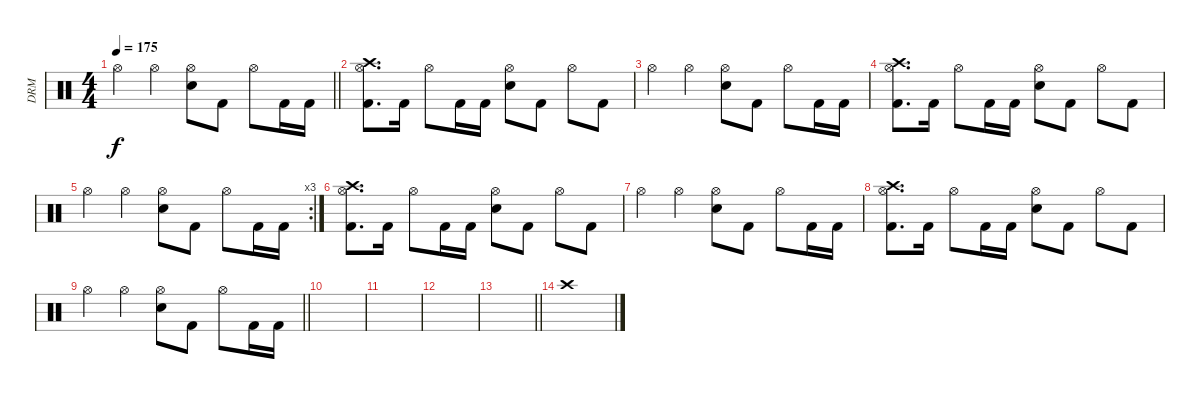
\track ("DRM " "DRM ") {instrument percussion}
\staff {score}
\articulation defaults
\ts (4 4)
\tempo 175
\clef neutral
\barLineRight lightlight
\ks c "Hi-Hat (open)".4{dy f} "Hi-Hat (open)".4
("Hi-Hat (open)" "Electric Snare (hit)").8 "Kick (hit) 2".8 "Hi-Hat (open)".8 "Kick (hit) 2".16 "Kick (hit) 2".16 |
("Hi-Hat (open)" "Crash high (hit)" "Kick (hit) 2").8{d volume 15} "Kick (hit) 2".16 "Hi-Hat (open)".8 "Kick (hit) 2".16 "Kick (hit) 2".16 ("Hi-Hat (open)" "Electric Snare (hit)").8 "Kick (hit) 2".8 "Hi-Hat (open)".8 "Kick (hit) 2".8 |
"Hi-Hat (open)".4 "Hi-Hat (open)".4 ("Hi-Hat (open)" "Electric Snare (hit)").8 "Kick (hit) 2".8 "Hi-Hat (open)".8 "Kick (hit) 2".16 "Kick (hit) 2".16 |
("Hi-Hat (open)" "Crash high (hit)" "Kick (hit) 2").8{d volume 15} "Kick (hit) 2".16 "Hi-Hat (open)".8 "Kick (hit) 2".16 "Kick (hit) 2".16 ("Hi-Hat (open)" "Electric Snare (hit)").8 "Kick (hit) 2".8 "Hi-Hat (open)".8 "Kick (hit) 2".8 |
\rc 3 "Hi-Hat (open)".4 "Hi-Hat (open)".4
("Hi-Hat (open)" "Electric Snare (hit)").8 "Kick (hit) 2".8 "Hi-Hat (open)".8 "Kick (hit) 2".16 "Kick (hit) 2".16 |
("Hi-Hat (open)" "Crash high (hit)" "Kick (hit) 2").8{d volume 15} "Kick (hit) 2".16 "Hi-Hat (open)".8 "Kick (hit) 2".16 "Kick (hit) 2".16 ("Hi-Hat (open)" "Electric Snare (hit)").8 "Kick (hit) 2".8 "Hi-Hat (open)".8 "Kick (hit) 2".8 |
"Hi-Hat (open)".4 "Hi-Hat (open)".4 ("Hi-Hat (open)" "Electric Snare (hit)").8 "Kick (hit) 2".8 "Hi-Hat (open)".8 "Kick (hit) 2".16 "Kick (hit) 2".16 |
("Hi-Hat (open)" "Crash high (hit)" "Kick (hit) 2").8{d volume 15} "Kick (hit) 2".16 "Hi-Hat (open)".8 "Kick (hit) 2".16 "Kick (hit) 2".16 ("Hi-Hat (open)" "Electric Snare (hit)").8 "Kick (hit) 2".8 "Hi-Hat (open)".8 "Kick (hit) 2".8 |
\barLineRight lightlight "Hi-Hat (open)".4 "Hi-Hat (open)".4
("Hi-Hat (open)" "Electric Snare (hit)").8 "Kick (hit) 2".8 "Hi-Hat (open)".8 "Kick (hit) 2".16 "Kick (hit) 2".16 |
|
|
|
\barLineRight lightlight
|
"Crash high (hit)".1
